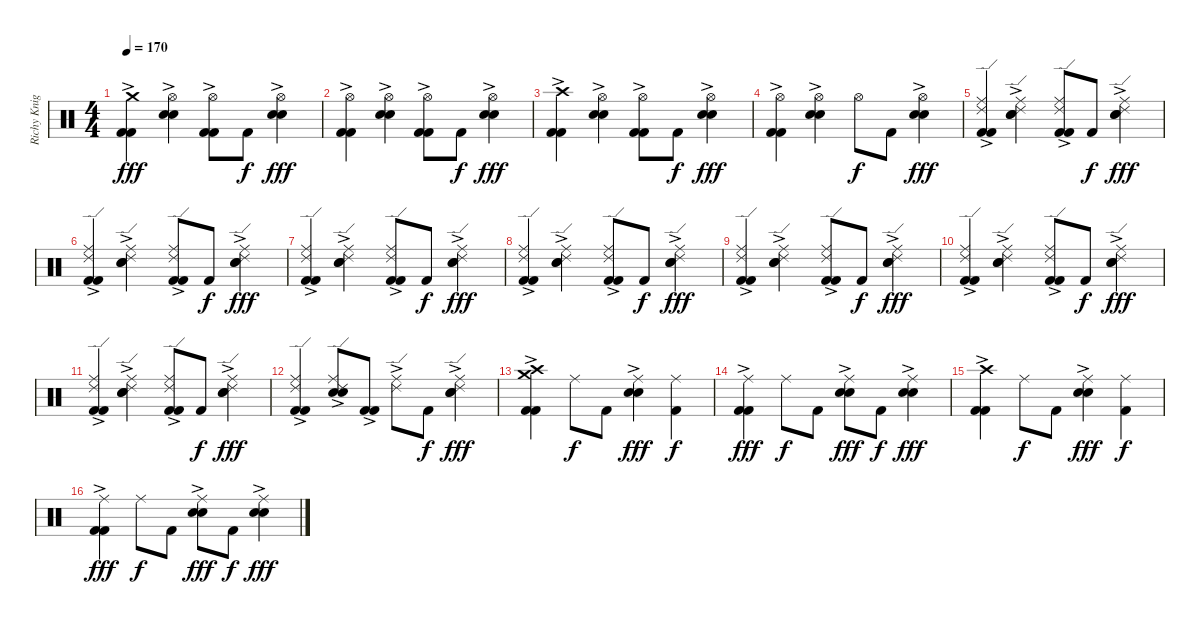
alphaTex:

\track ("Richy Knight (Drums)" "Richy Knig") {instrument percussion}
\staff {score}
\articulation defaults
\ts (4 4)
\tempo 170
\clef neutral
\ks c
("Crash medium (hit)"{ac} "Kick (hit) 2"{ac} "Kick (hit) 2"{ac}).4{dy fff} ("Hi-Hat (open)"{ac} "Electric Snare (hit)"{ac} "Electric Snare (hit)"{ac}).4 ("Hi-Hat (open)"{ac} "Kick (hit) 2"{ac} "Kick (hit) 2"{ac}).8 "Kick (hit) 2".8{dy f} ("Hi-Hat (open)"{ac} "Electric Snare (hit)"{ac} "Electric Snare (hit)"{ac}).4{dy fff} |
("Hi-Hat (open)"{ac} "Kick (hit) 2"{ac} "Kick (hit) 2"{ac}).4 ("Hi-Hat (open)"{ac} "Electric Snare (hit)"{ac} "Electric Snare (hit)"{ac}).4 ("Hi-Hat (open)"{ac} "Kick (hit) 2"{ac} "Kick (hit) 2"{ac}).8 "Kick (hit) 2".8{dy f} ("Hi-Hat (open)"{ac} "Electric Snare (hit)"{ac} "Electric Snare (hit)"{ac}).4{dy fff} |
("Crash high (hit)"{ac} "Kick (hit) 2"{ac} "Kick (hit) 2"{ac}).4 ("Hi-Hat (open)"{ac} "Electric Snare (hit)"{ac} "Electric Snare (hit)"{ac}).4 ("Hi-Hat (open)"{ac} "Kick (hit) 2"{ac} "Kick (hit) 2"{ac}).8 "Kick (hit) 2".8{dy f} ("Hi-Hat (open)"{ac} "Electric Snare (hit)"{ac} "Electric Snare (hit)"{ac}).4{dy fff} |
("Hi-Hat (open)"{ac} "Kick (hit) 2"{ac} "Kick (hit) 2"{ac}).4 ("Hi-Hat (open)"{ac} "Electric Snare (hit)"{ac} "Electric Snare (hit)"{ac}).4 "Hi-Hat (open)".8{dy f} "Kick (hit) 2".8 ("Hi-Hat (open)"{ac} "Electric Snare (hit)"{ac} "Electric Snare (hit)"{ac}).4{dy fff} |
("Ride (middle)"{ac} "Ride (edge) 2"{ac} "Kick (hit) 2"{ac} "Kick (hit) 2"{ac}).4 ("Ride (middle)"{ac} "Ride (edge) 2"{ac} "Electric Snare (hit)"{ac} "Electric Snare (hit)"{ac}).4 ("Ride (middle)"{ac} "Ride (edge) 2"{ac} "Kick (hit) 2"{ac} "Kick (hit) 2"{ac}).8 "Kick (hit) 2".8{dy f} ("Ride (middle)"{ac} "Ride (edge) 2"{ac} "Electric Snare (hit)"{ac} "Electric Snare (hit)"{ac}).4{dy fff} |
("Ride (middle)"{ac} "Ride (edge) 2"{ac} "Kick (hit) 2"{ac} "Kick (hit) 2"{ac}).4 ("Ride (middle)"{ac} "Ride (edge) 2"{ac} "Electric Snare (hit)"{ac} "Electric Snare (hit)"{ac}).4 ("Ride (middle)"{ac} "Ride (edge) 2"{ac} "Kick (hit) 2"{ac} "Kick (hit) 2"{ac}).8 "Kick (hit) 2".8{dy f} ("Ride (middle)"{ac} "Ride (edge) 2"{ac} "Electric Snare (hit)"{ac} "Electric Snare (hit)"{ac}).4{dy fff} |
("Ride (middle)"{ac} "Ride (edge) 2"{ac} "Kick (hit) 2"{ac} "Kick (hit) 2"{ac}).4 ("Ride (middle)"{ac} "Ride (edge) 2"{ac} "Electric Snare (hit)"{ac} "Electric Snare (hit)"{ac}).4 ("Ride (middle)"{ac} "Ride (edge) 2"{ac} "Kick (hit) 2"{ac} "Kick (hit) 2"{ac}).8 "Kick (hit) 2".8{dy f} ("Ride (middle)"{ac} "Ride (edge) 2"{ac} "Electric Snare (hit)"{ac} "Electric Snare (hit)"{ac}).4{dy fff} |
("Ride (middle)"{ac} "Ride (edge) 2"{ac} "Kick (hit) 2"{ac} "Kick (hit) 2"{ac}).4 ("Ride (middle)"{ac} "Ride (edge) 2"{ac} "Electric Snare (hit)"{ac} "Electric Snare (hit)"{ac}).4 ("Ride (middle)"{ac} "Ride (edge) 2"{ac} "Kick (hit) 2"{ac} "Kick (hit) 2"{ac}).8 "Kick (hit) 2".8{dy f} ("Ride (middle)"{ac} "Ride (edge) 2"{ac} "Electric Snare (hit)"{ac} "Electric Snare (hit)"{ac}).4{dy fff} |
("Ride (middle)"{ac} "Ride (edge) 2"{ac} "Kick (hit) 2"{ac} "Kick (hit) 2"{ac}).4 ("Ride (middle)"{ac} "Ride (edge) 2"{ac} "Electric Snare (hit)"{ac} "Electric Snare (hit)"{ac}).4 ("Ride (middle)"{ac} "Ride (edge) 2"{ac} "Kick (hit) 2"{ac} "Kick (hit) 2"{ac}).8 "Kick (hit) 2".8{dy f} ("Ride (middle)"{ac} "Ride (edge) 2"{ac} "Electric Snare (hit)"{ac} "Electric Snare (hit)"{ac}).4{dy fff} |
("Ride (middle)"{ac} "Ride (edge) 2"{ac} "Kick (hit) 2"{ac} "Kick (hit) 2"{ac}).4 ("Ride (middle)"{ac} "Ride (edge) 2"{ac} "Electric Snare (hit)"{ac} "Electric Snare (hit)"{ac}).4 ("Ride (middle)"{ac} "Ride (edge) 2"{ac} "Kick (hit) 2"{ac} "Kick (hit) 2"{ac}).8 "Kick (hit) 2".8{dy f} ("Ride (middle)"{ac} "Ride (edge) 2"{ac} "Electric Snare (hit)"{ac} "Electric Snare (hit)"{ac}).4{dy fff} |
("Ride (middle)"{ac} "Ride (edge) 2"{ac} "Kick (hit) 2"{ac} "Kick (hit) 2"{ac}).4 ("Ride (middle)"{ac} "Ride (edge) 2"{ac} "Electric Snare (hit)"{ac} "Electric Snare (hit)"{ac}).4 ("Ride (middle)"{ac} "Ride (edge) 2"{ac} "Kick (hit) 2"{ac} "Kick (hit) 2"{ac}).8 "Kick (hit) 2".8{dy f} ("Ride (middle)"{ac} "Ride (edge) 2"{ac} "Electric Snare (hit)"{ac} "Electric Snare (hit)"{ac}).4{dy fff} |
("Ride (middle)"{ac} "Ride (edge) 2"{ac} "Kick (hit) 2"{ac} "Kick (hit) 2"{ac}).4 ("Ride (middle)"{ac} "Ride (edge) 2"{ac} "Electric Snare (hit)"{ac} "Electric Snare (hit)"{ac}).8 ("Kick (hit) 2"{ac} "Kick (hit) 2"{ac}).8 ("Ride (middle)"{ac} "Ride (edge) 2"{ac}).8 "Kick (hit) 2".8{dy f} ("Ride (middle)"{ac} "Ride (edge) 2"{ac} "Electric Snare (hit)"{ac} "Electric Snare (hit)"{ac}).4{dy fff} |
("Crash high (hit)"{ac} "Crash medium (hit)" "Kick (hit) 2"{ac} "Kick (hit) 2"{ac}).4 "Ride (middle)".8{dy f} "Kick (hit) 2".8 ("Ride (middle)"{ac} "Electric Snare (hit)"{ac} "Electric Snare (hit)"{ac}).4{dy fff} ("Ride (middle)" "Kick (hit) 2").4{dy f} |
("Ride (middle)"{ac} "Kick (hit) 2"{ac} "Kick (hit) 2"{ac}).4{dy fff} "Ride (middle)".8{dy f} "Kick (hit) 2".8 ("Ride (middle)"{ac} "Electric Snare (hit)"{ac} "Electric Snare (hit)"{ac}).8{dy fff} "Kick (hit) 2".8{dy f} ("Ride (middle)"{ac} "Electric Snare (hit)"{ac} "Electric Snare (hit)"{ac}).4{dy fff} |
("Crash high (hit)"{ac} "Kick (hit) 2"{ac} "Kick (hit) 2"{ac}).4 "Ride (middle)".8{dy f} "Kick (hit) 2".8 ("Ride (middle)"{ac} "Electric Snare (hit)"{ac} "Electric Snare (hit)"{ac}).4{dy fff} ("Ride (middle)" "Kick (hit) 2").4{dy f} |
("Ride (middle)"{ac} "Kick (hit) 2"{ac} "Kick (hit) 2"{ac}).4{dy fff} "Ride (middle)".8{dy f} "Kick (hit) 2".8 ("Ride (middle)"{ac} "Electric Snare (hit)"{ac} "Electric Snare (hit)"{ac}).8{dy fff} "Kick (hit) 2".8{dy f} ("Ride (middle)"{ac} "Electric Snare (hit)"{ac} "Electric Snare (hit)"{ac}).4{dy fff}
